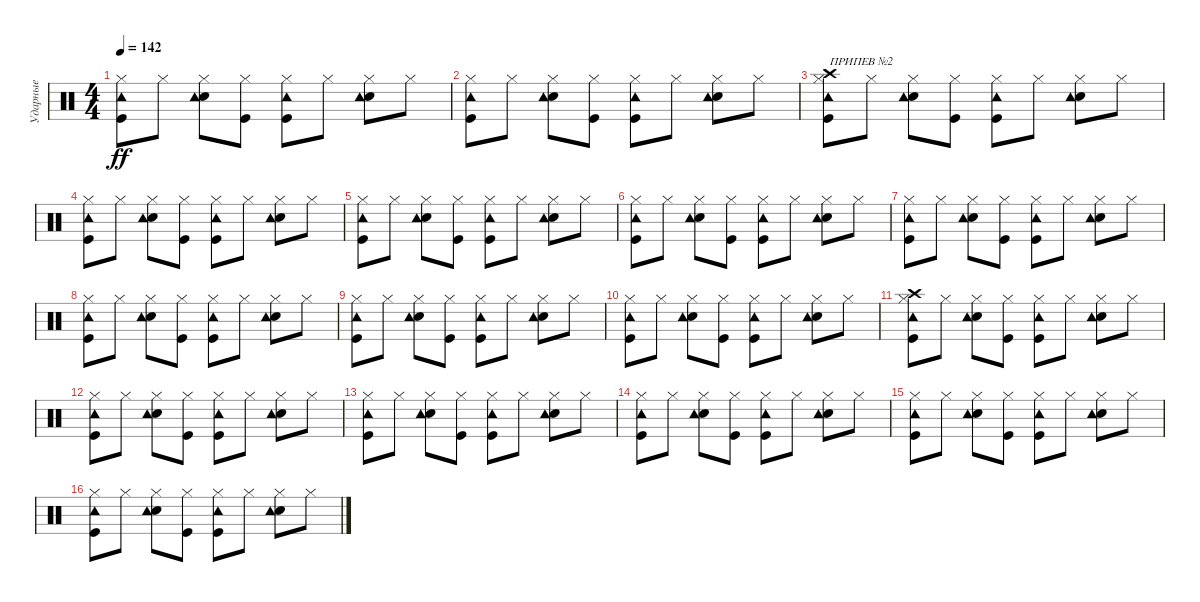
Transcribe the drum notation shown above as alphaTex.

\track ("Ударные" "Ударные") {instrument percussion}
\staff {score}
\articulation defaults
\ts (4 4)
\tempo 142
\clef neutral
\ks c
("Hi-Hat (closed)" "Kick (hit)" "Tambourine (hit)").8{dy ff} "Hi-Hat (closed)".8 ("Hi-Hat (closed)" "Electric Snare (hit)" "Tambourine (hit)").8 ("Hi-Hat (closed)" "Kick (hit)").8 ("Hi-Hat (closed)" "Tambourine (hit)" "Kick (hit)").8 "Hi-Hat (closed)".8 ("Hi-Hat (closed)" "Electric Snare (hit)" "Tambourine (hit)").8 "Hi-Hat (closed)".8 |
("Hi-Hat (closed)" "Kick (hit)" "Tambourine (hit)").8 "Hi-Hat (closed)".8 ("Hi-Hat (closed)" "Electric Snare (hit)" "Tambourine (hit)").8 ("Hi-Hat (closed)" "Kick (hit)").8 ("Hi-Hat (closed)" "Tambourine (hit)" "Kick (hit)").8 "Hi-Hat (closed)".8 ("Hi-Hat (closed)" "Electric Snare (hit)" "Tambourine (hit)").8 "Hi-Hat (closed)".8 |
("Crash high (hit)" "Hi-Hat (closed)" "Kick (hit)" "Tambourine (hit)").8{txt "ПРИПЕВ №2"} "Hi-Hat (closed)".8 ("Hi-Hat (closed)" "Electric Snare (hit)" "Tambourine (hit)").8 ("Hi-Hat (closed)" "Kick (hit)").8 ("Hi-Hat (closed)" "Tambourine (hit)" "Kick (hit)").8 "Hi-Hat (closed)".8 ("Hi-Hat (closed)" "Electric Snare (hit)" "Tambourine (hit)").8 "Hi-Hat (closed)".8 |
("Hi-Hat (closed)" "Kick (hit)" "Tambourine (hit)").8 "Hi-Hat (closed)".8 ("Hi-Hat (closed)" "Electric Snare (hit)" "Tambourine (hit)").8 ("Hi-Hat (closed)" "Kick (hit)").8 ("Hi-Hat (closed)" "Tambourine (hit)" "Kick (hit)").8 "Hi-Hat (closed)".8 ("Hi-Hat (closed)" "Electric Snare (hit)" "Tambourine (hit)").8 "Hi-Hat (closed)".8 |
("Hi-Hat (closed)" "Kick (hit)" "Tambourine (hit)").8 "Hi-Hat (closed)".8 ("Hi-Hat (closed)" "Electric Snare (hit)" "Tambourine (hit)").8 ("Hi-Hat (closed)" "Kick (hit)").8 ("Hi-Hat (closed)" "Tambourine (hit)" "Kick (hit)").8 "Hi-Hat (closed)".8 ("Hi-Hat (closed)" "Electric Snare (hit)" "Tambourine (hit)").8 "Hi-Hat (closed)".8 |
("Hi-Hat (closed)" "Kick (hit)" "Tambourine (hit)").8 "Hi-Hat (closed)".8 ("Hi-Hat (closed)" "Electric Snare (hit)" "Tambourine (hit)").8 ("Hi-Hat (closed)" "Kick (hit)").8 ("Hi-Hat (closed)" "Tambourine (hit)" "Kick (hit)").8 "Hi-Hat (closed)".8 ("Hi-Hat (closed)" "Electric Snare (hit)" "Tambourine (hit)").8 "Hi-Hat (closed)".8 |
("Hi-Hat (closed)" "Kick (hit)" "Tambourine (hit)").8 "Hi-Hat (closed)".8 ("Hi-Hat (closed)" "Electric Snare (hit)" "Tambourine (hit)").8 ("Hi-Hat (closed)" "Kick (hit)").8 ("Hi-Hat (closed)" "Tambourine (hit)" "Kick (hit)").8 "Hi-Hat (closed)".8 ("Hi-Hat (closed)" "Electric Snare (hit)" "Tambourine (hit)").8 "Hi-Hat (closed)".8 |
("Hi-Hat (closed)" "Kick (hit)" "Tambourine (hit)").8 "Hi-Hat (closed)".8 ("Hi-Hat (closed)" "Electric Snare (hit)" "Tambourine (hit)").8 ("Hi-Hat (closed)" "Kick (hit)").8 ("Hi-Hat (closed)" "Tambourine (hit)" "Kick (hit)").8 "Hi-Hat (closed)".8 ("Hi-Hat (closed)" "Electric Snare (hit)" "Tambourine (hit)").8 "Hi-Hat (closed)".8 |
("Hi-Hat (closed)" "Kick (hit)" "Tambourine (hit)").8 "Hi-Hat (closed)".8 ("Hi-Hat (closed)" "Electric Snare (hit)" "Tambourine (hit)").8 ("Hi-Hat (closed)" "Kick (hit)").8 ("Hi-Hat (closed)" "Tambourine (hit)" "Kick (hit)").8 "Hi-Hat (closed)".8 ("Hi-Hat (closed)" "Electric Snare (hit)" "Tambourine (hit)").8 "Hi-Hat (closed)".8 |
("Hi-Hat (closed)" "Kick (hit)" "Tambourine (hit)").8 "Hi-Hat (closed)".8 ("Hi-Hat (closed)" "Electric Snare (hit)" "Tambourine (hit)").8 ("Hi-Hat (closed)" "Kick (hit)").8 ("Hi-Hat (closed)" "Tambourine (hit)" "Kick (hit)").8 "Hi-Hat (closed)".8 ("Hi-Hat (closed)" "Electric Snare (hit)" "Tambourine (hit)").8 "Hi-Hat (closed)".8 |
("Crash high (hit)" "Hi-Hat (closed)" "Kick (hit)" "Tambourine (hit)").8 "Hi-Hat (closed)".8 ("Hi-Hat (closed)" "Electric Snare (hit)" "Tambourine (hit)").8 ("Hi-Hat (closed)" "Kick (hit)").8 ("Hi-Hat (closed)" "Tambourine (hit)" "Kick (hit)").8 "Hi-Hat (closed)".8 ("Hi-Hat (closed)" "Electric Snare (hit)" "Tambourine (hit)").8 "Hi-Hat (closed)".8 |
("Hi-Hat (closed)" "Kick (hit)" "Tambourine (hit)").8 "Hi-Hat (closed)".8 ("Hi-Hat (closed)" "Electric Snare (hit)" "Tambourine (hit)").8 ("Hi-Hat (closed)" "Kick (hit)").8 ("Hi-Hat (closed)" "Tambourine (hit)" "Kick (hit)").8 "Hi-Hat (closed)".8 ("Hi-Hat (closed)" "Electric Snare (hit)" "Tambourine (hit)").8 "Hi-Hat (closed)".8 |
("Hi-Hat (closed)" "Kick (hit)" "Tambourine (hit)").8 "Hi-Hat (closed)".8 ("Hi-Hat (closed)" "Electric Snare (hit)" "Tambourine (hit)").8 ("Hi-Hat (closed)" "Kick (hit)").8 ("Hi-Hat (closed)" "Tambourine (hit)" "Kick (hit)").8 "Hi-Hat (closed)".8 ("Hi-Hat (closed)" "Electric Snare (hit)" "Tambourine (hit)").8 "Hi-Hat (closed)".8 |
("Hi-Hat (closed)" "Kick (hit)" "Tambourine (hit)").8 "Hi-Hat (closed)".8 ("Hi-Hat (closed)" "Electric Snare (hit)" "Tambourine (hit)").8 ("Hi-Hat (closed)" "Kick (hit)").8 ("Hi-Hat (closed)" "Tambourine (hit)" "Kick (hit)").8 "Hi-Hat (closed)".8 ("Hi-Hat (closed)" "Electric Snare (hit)" "Tambourine (hit)").8 "Hi-Hat (closed)".8 |
("Hi-Hat (closed)" "Kick (hit)" "Tambourine (hit)").8 "Hi-Hat (closed)".8 ("Hi-Hat (closed)" "Electric Snare (hit)" "Tambourine (hit)").8 ("Hi-Hat (closed)" "Kick (hit)").8 ("Hi-Hat (closed)" "Tambourine (hit)" "Kick (hit)").8 "Hi-Hat (closed)".8 ("Hi-Hat (closed)" "Electric Snare (hit)" "Tambourine (hit)").8 "Hi-Hat (closed)".8 |
("Hi-Hat (closed)" "Kick (hit)" "Tambourine (hit)").8 "Hi-Hat (closed)".8 ("Hi-Hat (closed)" "Electric Snare (hit)" "Tambourine (hit)").8 ("Hi-Hat (closed)" "Kick (hit)").8 ("Hi-Hat (closed)" "Tambourine (hit)" "Kick (hit)").8 "Hi-Hat (closed)".8 ("Hi-Hat (closed)" "Electric Snare (hit)" "Tambourine (hit)").8 "Hi-Hat (closed)".8
